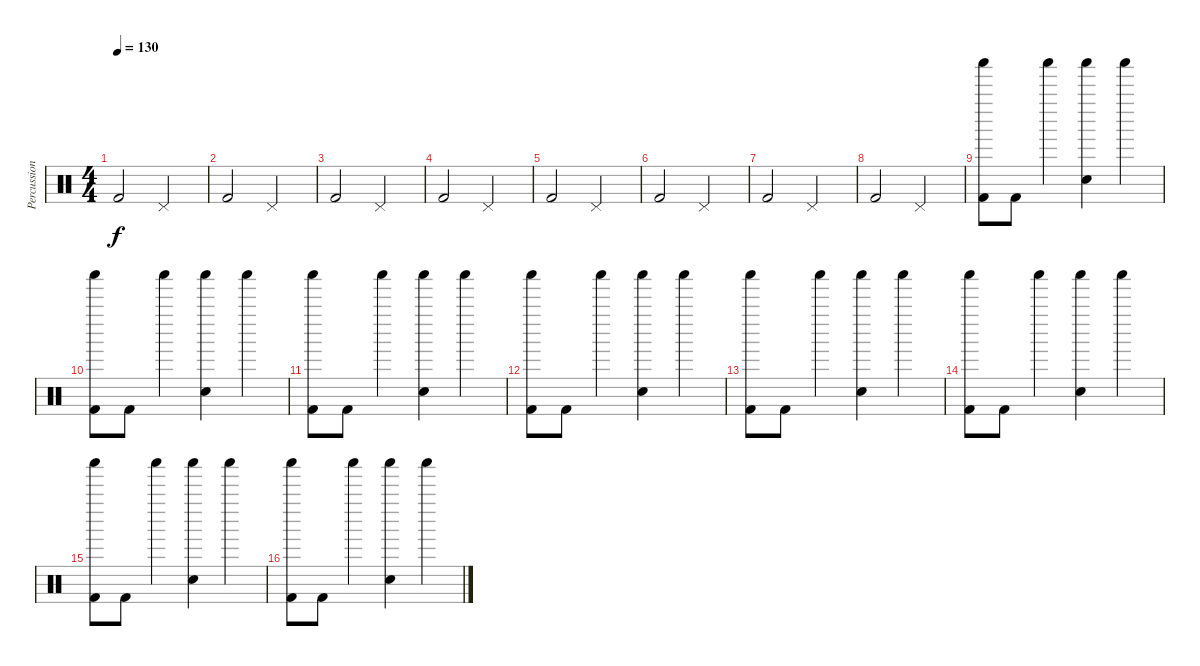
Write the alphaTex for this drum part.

\track ("Percussion" "Percussion") {instrument percussion}
\staff {score}
\articulation defaults
\ts (4 4)
\tempo 130
\clef neutral
\ks c "Kick (hit) 2".2{dy f} "Pedal Hi-Hat (hit)".2
|
"Kick (hit) 2".2 "Pedal Hi-Hat (hit)".2 |
"Kick (hit) 2".2 "Pedal Hi-Hat (hit)".2 |
"Kick (hit) 2".2 "Pedal Hi-Hat (hit)".2 |
"Kick (hit) 2".2 "Pedal Hi-Hat (hit)".2 |
"Kick (hit) 2".2 "Pedal Hi-Hat (hit)".2 |
"Kick (hit) 2".2 "Pedal Hi-Hat (hit)".2 |
"Kick (hit) 2".2 "Pedal Hi-Hat (hit)".2 |
("Shaker (hit)" "Kick (hit) 2").8 "Kick (hit) 2".8 "Shaker (hit)".4 ("Shaker (hit)" "Snare (hit) 2").4 "Shaker (hit)".4 |
("Shaker (hit)" "Kick (hit) 2").8 "Kick (hit) 2".8 "Shaker (hit)".4 ("Shaker (hit)" "Snare (hit) 2").4 "Shaker (hit)".4 |
("Shaker (hit)" "Kick (hit) 2").8 "Kick (hit) 2".8 "Shaker (hit)".4 ("Shaker (hit)" "Snare (hit) 2").4 "Shaker (hit)".4 |
("Shaker (hit)" "Kick (hit) 2").8 "Kick (hit) 2".8 "Shaker (hit)".4 ("Shaker (hit)" "Snare (hit) 2").4 "Shaker (hit)".4 |
("Shaker (hit)" "Kick (hit) 2").8 "Kick (hit) 2".8 "Shaker (hit)".4 ("Shaker (hit)" "Snare (hit) 2").4 "Shaker (hit)".4 |
("Shaker (hit)" "Kick (hit) 2").8 "Kick (hit) 2".8 "Shaker (hit)".4 ("Shaker (hit)" "Snare (hit) 2").4 "Shaker (hit)".4 |
("Shaker (hit)" "Kick (hit) 2").8 "Kick (hit) 2".8 "Shaker (hit)".4 ("Shaker (hit)" "Snare (hit) 2").4 "Shaker (hit)".4 |
("Shaker (hit)" "Kick (hit) 2").8 "Kick (hit) 2".8 "Shaker (hit)".4 ("Shaker (hit)" "Snare (hit) 2").4 "Shaker (hit)".4
